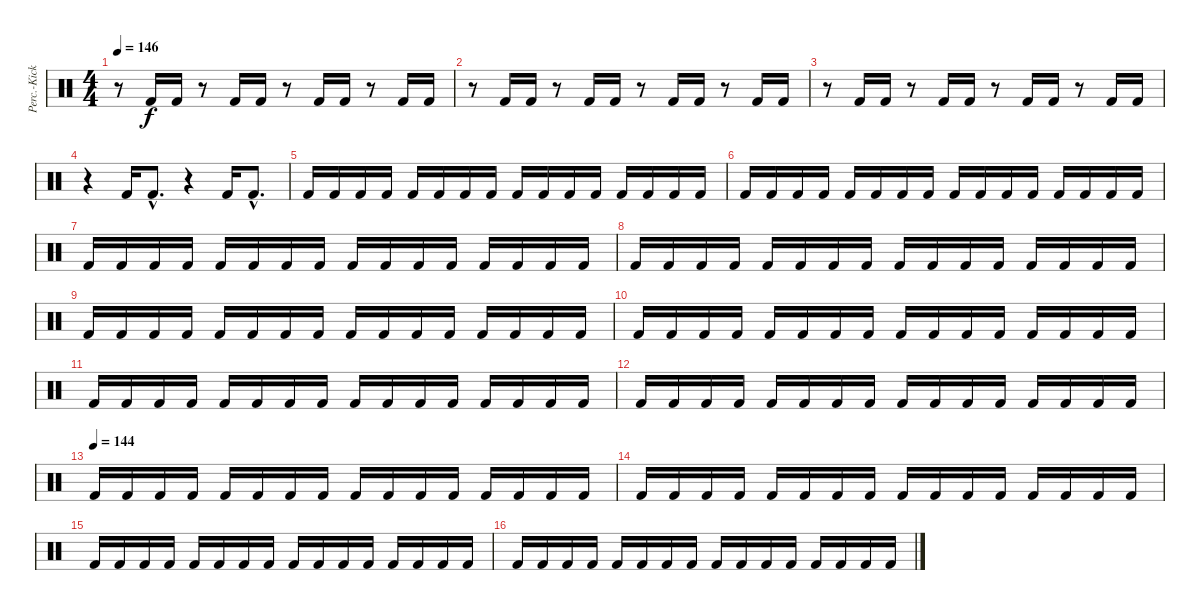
\track ("Perc.-Kick" "Perc.-Kick") {instrument percussion}
\staff {score}
\articulation defaults
\ts (4 4)
\tempo 146
\clef neutral
\ks c
r.8{dy f} "Kick (hit) 2".16 "Kick (hit) 2".16 r.8 "Kick (hit) 2".16 "Kick (hit) 2".16 r.8 "Kick (hit) 2".16 "Kick (hit) 2".16 r.8 "Kick (hit) 2".16 "Kick (hit) 2".16 |
r.8 "Kick (hit) 2".16 "Kick (hit) 2".16 r.8 "Kick (hit) 2".16 "Kick (hit) 2".16 r.8 "Kick (hit) 2".16 "Kick (hit) 2".16 r.8 "Kick (hit) 2".16 "Kick (hit) 2".16 |
r.8 "Kick (hit) 2".16 "Kick (hit) 2".16 r.8 "Kick (hit) 2".16 "Kick (hit) 2".16 r.8 "Kick (hit) 2".16 "Kick (hit) 2".16 r.8 "Kick (hit) 2".16 "Kick (hit) 2".16 |
r.4 "Kick (hit) 2".16 "Kick (hit) 2"{hac}.8{d} r.4 "Kick (hit) 2".16 "Kick (hit) 2"{hac}.8{d} |
"Kick (hit) 2".16 "Kick (hit) 2".16 "Kick (hit) 2".16 "Kick (hit) 2".16 "Kick (hit) 2".16 "Kick (hit) 2".16 "Kick (hit) 2".16 "Kick (hit) 2".16 "Kick (hit) 2".16 "Kick (hit) 2".16 "Kick (hit) 2".16 "Kick (hit) 2".16 "Kick (hit) 2".16 "Kick (hit) 2".16 "Kick (hit) 2".16 "Kick (hit) 2".16 |
"Kick (hit) 2".16 "Kick (hit) 2".16 "Kick (hit) 2".16 "Kick (hit) 2".16 "Kick (hit) 2".16 "Kick (hit) 2".16 "Kick (hit) 2".16 "Kick (hit) 2".16 "Kick (hit) 2".16 "Kick (hit) 2".16 "Kick (hit) 2".16 "Kick (hit) 2".16 "Kick (hit) 2".16 "Kick (hit) 2".16 "Kick (hit) 2".16 "Kick (hit) 2".16 |
"Kick (hit) 2".16 "Kick (hit) 2".16 "Kick (hit) 2".16 "Kick (hit) 2".16 "Kick (hit) 2".16 "Kick (hit) 2".16 "Kick (hit) 2".16 "Kick (hit) 2".16 "Kick (hit) 2".16 "Kick (hit) 2".16 "Kick (hit) 2".16 "Kick (hit) 2".16 "Kick (hit) 2".16 "Kick (hit) 2".16 "Kick (hit) 2".16 "Kick (hit) 2".16 |
"Kick (hit) 2".16 "Kick (hit) 2".16 "Kick (hit) 2".16 "Kick (hit) 2".16 "Kick (hit) 2".16 "Kick (hit) 2".16 "Kick (hit) 2".16 "Kick (hit) 2".16 "Kick (hit) 2".16 "Kick (hit) 2".16 "Kick (hit) 2".16 "Kick (hit) 2".16 "Kick (hit) 2".16 "Kick (hit) 2".16 "Kick (hit) 2".16 "Kick (hit) 2".16 |
"Kick (hit) 2".16 "Kick (hit) 2".16 "Kick (hit) 2".16 "Kick (hit) 2".16 "Kick (hit) 2".16 "Kick (hit) 2".16 "Kick (hit) 2".16 "Kick (hit) 2".16 "Kick (hit) 2".16 "Kick (hit) 2".16 "Kick (hit) 2".16 "Kick (hit) 2".16 "Kick (hit) 2".16 "Kick (hit) 2".16 "Kick (hit) 2".16 "Kick (hit) 2".16 |
"Kick (hit) 2".16 "Kick (hit) 2".16 "Kick (hit) 2".16 "Kick (hit) 2".16 "Kick (hit) 2".16 "Kick (hit) 2".16 "Kick (hit) 2".16 "Kick (hit) 2".16 "Kick (hit) 2".16 "Kick (hit) 2".16 "Kick (hit) 2".16 "Kick (hit) 2".16 "Kick (hit) 2".16 "Kick (hit) 2".16 "Kick (hit) 2".16 "Kick (hit) 2".16 |
"Kick (hit) 2".16 "Kick (hit) 2".16 "Kick (hit) 2".16 "Kick (hit) 2".16 "Kick (hit) 2".16 "Kick (hit) 2".16 "Kick (hit) 2".16 "Kick (hit) 2".16 "Kick (hit) 2".16 "Kick (hit) 2".16 "Kick (hit) 2".16 "Kick (hit) 2".16 "Kick (hit) 2".16 "Kick (hit) 2".16 "Kick (hit) 2".16 "Kick (hit) 2".16 |
"Kick (hit) 2".16 "Kick (hit) 2".16 "Kick (hit) 2".16 "Kick (hit) 2".16 "Kick (hit) 2".16 "Kick (hit) 2".16 "Kick (hit) 2".16 "Kick (hit) 2".16 "Kick (hit) 2".16 "Kick (hit) 2".16 "Kick (hit) 2".16 "Kick (hit) 2".16 "Kick (hit) 2".16 "Kick (hit) 2".16 "Kick (hit) 2".16 "Kick (hit) 2".16 |
\tempo (144)
"Kick (hit) 2".16 "Kick (hit) 2".16 "Kick (hit) 2".16 "Kick (hit) 2".16 "Kick (hit) 2".16 "Kick (hit) 2".16 "Kick (hit) 2".16 "Kick (hit) 2".16 "Kick (hit) 2".16 "Kick (hit) 2".16 "Kick (hit) 2".16 "Kick (hit) 2".16 "Kick (hit) 2".16 "Kick (hit) 2".16 "Kick (hit) 2".16 "Kick (hit) 2".16 |
"Kick (hit) 2".16 "Kick (hit) 2".16 "Kick (hit) 2".16 "Kick (hit) 2".16 "Kick (hit) 2".16 "Kick (hit) 2".16 "Kick (hit) 2".16 "Kick (hit) 2".16 "Kick (hit) 2".16 "Kick (hit) 2".16 "Kick (hit) 2".16 "Kick (hit) 2".16 "Kick (hit) 2".16 "Kick (hit) 2".16 "Kick (hit) 2".16 "Kick (hit) 2".16 |
"Kick (hit) 2".16 "Kick (hit) 2".16 "Kick (hit) 2".16 "Kick (hit) 2".16 "Kick (hit) 2".16 "Kick (hit) 2".16 "Kick (hit) 2".16 "Kick (hit) 2".16 "Kick (hit) 2".16 "Kick (hit) 2".16 "Kick (hit) 2".16 "Kick (hit) 2".16 "Kick (hit) 2".16 "Kick (hit) 2".16 "Kick (hit) 2".16 "Kick (hit) 2".16 |
"Kick (hit) 2".16 "Kick (hit) 2".16 "Kick (hit) 2".16 "Kick (hit) 2".16 "Kick (hit) 2".16 "Kick (hit) 2".16 "Kick (hit) 2".16 "Kick (hit) 2".16 "Kick (hit) 2".16 "Kick (hit) 2".16 "Kick (hit) 2".16 "Kick (hit) 2".16 "Kick (hit) 2".16 "Kick (hit) 2".16 "Kick (hit) 2".16 "Kick (hit) 2".16
